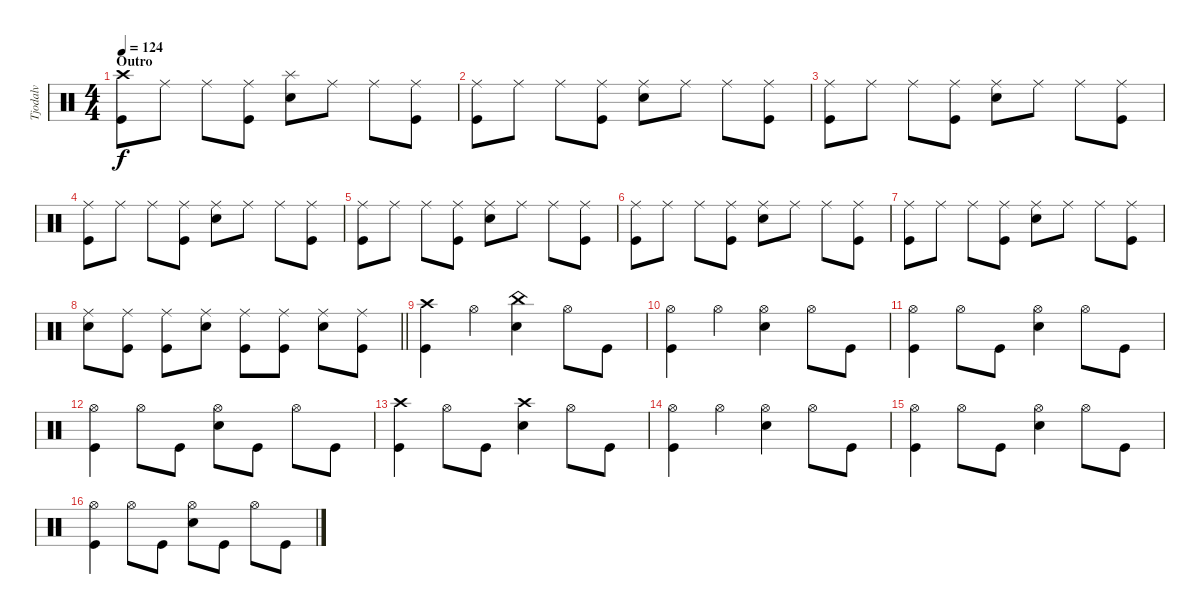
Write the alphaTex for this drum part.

\track ("Tjodalv" "Tjodalv") {instrument percussion}
\staff {score}
\articulation defaults
\ts (4 4)
\section ("" "Outro")
\tempo 124
\clef neutral
\ks c
("Crash high (hit)" "Kick (hit)").8{dy f} "Ride (middle)".8 "Ride (middle)".8 ("Kick (hit)" "Ride (middle)").8 ("Splash (hit)" "Snare (hit) 2").8 "Ride (middle)".8 "Ride (middle)".8 ("Kick (hit)" "Ride (middle)").8 |
("Kick (hit)" "Ride (middle)").8 "Ride (middle)".8 "Ride (middle)".8 ("Kick (hit)" "Ride (middle)").8 ("Ride (middle)" "Snare (hit) 2").8 "Ride (middle)".8 "Ride (middle)".8 ("Kick (hit)" "Ride (middle)").8 |
("Kick (hit)" "Ride (middle)").8 "Ride (middle)".8 "Ride (middle)".8 ("Kick (hit)" "Ride (middle)").8 ("Ride (middle)" "Snare (hit) 2").8 "Ride (middle)".8 "Ride (middle)".8 ("Kick (hit)" "Ride (middle)").8 |
("Kick (hit)" "Ride (middle)").8 "Ride (middle)".8 "Ride (middle)".8 ("Kick (hit)" "Ride (middle)").8 ("Ride (middle)" "Snare (hit) 2").8 "Ride (middle)".8 "Ride (middle)".8 ("Kick (hit)" "Ride (middle)").8 |
("Kick (hit)" "Ride (middle)").8 "Ride (middle)".8 "Ride (middle)".8 ("Kick (hit)" "Ride (middle)").8 ("Ride (middle)" "Snare (hit) 2").8 "Ride (middle)".8 "Ride (middle)".8 ("Kick (hit)" "Ride (middle)").8 |
("Kick (hit)" "Ride (middle)").8 "Ride (middle)".8 "Ride (middle)".8 ("Kick (hit)" "Ride (middle)").8 ("Ride (middle)" "Snare (hit) 2").8 "Ride (middle)".8 "Ride (middle)".8 ("Kick (hit)" "Ride (middle)").8 |
("Kick (hit)" "Ride (middle)").8 "Ride (middle)".8 "Ride (middle)".8 ("Kick (hit)" "Ride (middle)").8 ("Ride (middle)" "Snare (hit) 2").8 "Ride (middle)".8 "Ride (middle)".8 ("Kick (hit)" "Ride (middle)").8 |
\barLineRight lightlight
("Ride (middle)" "Snare (hit) 2").8 ("Kick (hit)" "Ride (middle)").8 ("Kick (hit)" "Ride (middle)").8 ("Ride (middle)" "Snare (hit) 2").8 ("Kick (hit)" "Ride (middle)").8 ("Kick (hit)" "Ride (middle)").8 ("Ride (middle)" "Snare (hit) 2").8 ("Kick (hit)" "Ride (middle)").8 |
("Crash high (hit)" "Kick (hit)").4 "Hi-Hat (open)".4 ("China (hit)" "Snare (hit) 2").4 "Hi-Hat (open)".8 "Kick (hit)".8 |
("Kick (hit)" "Hi-Hat (open)").4 "Hi-Hat (open)".4 ("Hi-Hat (open)" "Snare (hit) 2").4 "Hi-Hat (open)".8 "Kick (hit)".8 |
("Kick (hit)" "Hi-Hat (open)").4 "Hi-Hat (open)".8 "Kick (hit)".8 ("Hi-Hat (open)" "Snare (hit) 2").4 "Hi-Hat (open)".8 "Kick (hit)".8 |
("Kick (hit)" "Hi-Hat (open)").4 "Hi-Hat (open)".8 "Kick (hit)".8 ("Hi-Hat (open)" "Snare (hit) 2").8 "Kick (hit)".8 "Hi-Hat (open)".8 "Kick (hit)".8 |
("Crash high (hit)" "Kick (hit)").4 "Hi-Hat (open)".8 "Kick (hit)".8 ("Crash high (hit)" "Snare (hit) 2").4 "Hi-Hat (open)".8 "Kick (hit)".8 |
("Kick (hit)" "Hi-Hat (open)").4 "Hi-Hat (open)".4 ("Hi-Hat (open)" "Snare (hit) 2").4 "Hi-Hat (open)".8 "Kick (hit)".8 |
("Kick (hit)" "Hi-Hat (open)").4 "Hi-Hat (open)".8 "Kick (hit)".8 ("Hi-Hat (open)" "Snare (hit) 2").4 "Hi-Hat (open)".8 "Kick (hit)".8 |
("Kick (hit)" "Hi-Hat (open)").4 "Hi-Hat (open)".8 "Kick (hit)".8 ("Hi-Hat (open)" "Snare (hit) 2").8 "Kick (hit)".8 "Hi-Hat (open)".8 "Kick (hit)".8
